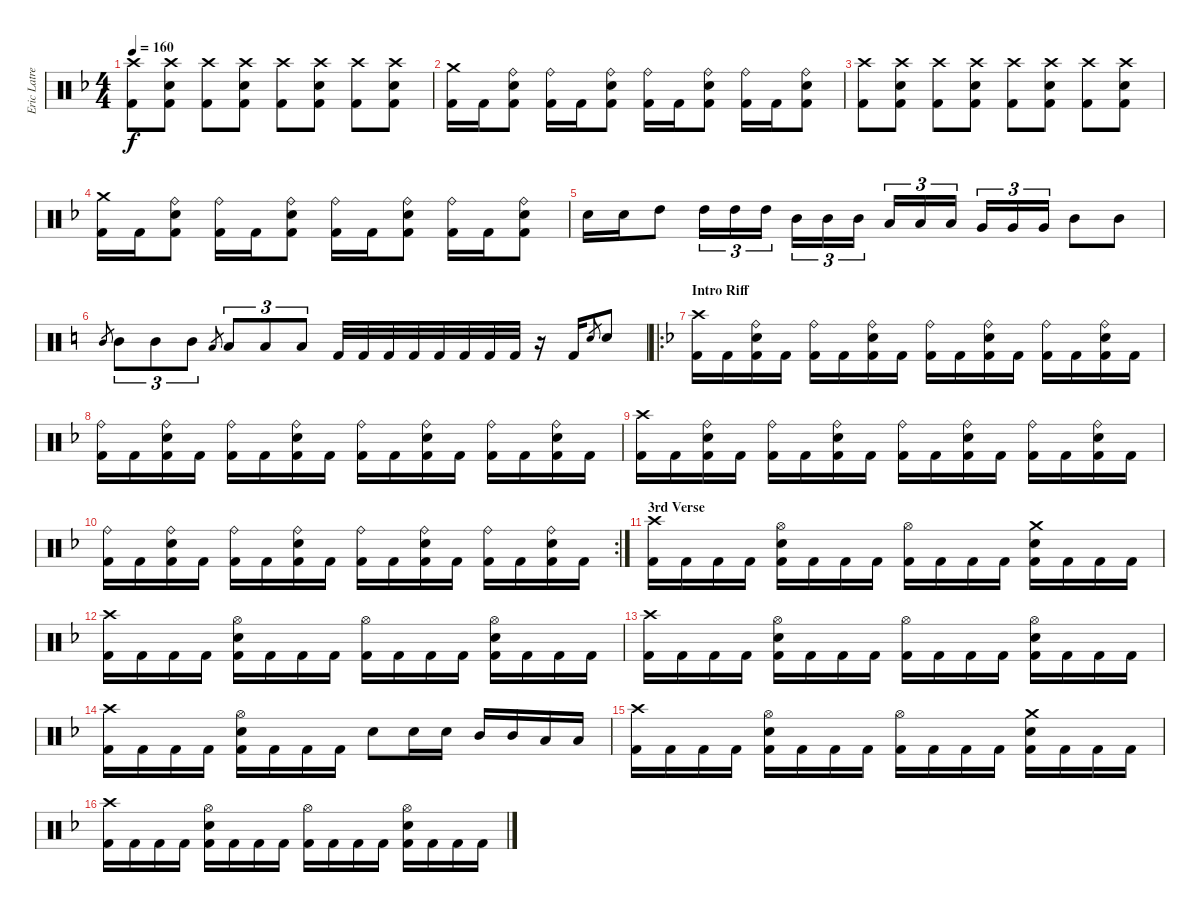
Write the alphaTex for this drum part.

\track ("Eric Latreille" "Eric Latre") {instrument percussion}
\staff {score}
\articulation defaults
\ts (4 4)
\tempo 160
\clef neutral
\ks dminor
("Crash high (hit)" "Kick (hit) 2").8{dy f} ("Crash high (hit)" "Snare (hit) 2" "Kick (hit) 2").8 ("Crash high (hit)" "Kick (hit) 2").8 ("Crash high (hit)" "Snare (hit) 2" "Kick (hit) 2").8 ("Crash high (hit)" "Kick (hit) 2").8 ("Crash high (hit)" "Snare (hit) 2" "Kick (hit) 2").8 ("Crash high (hit)" "Kick (hit) 2").8 ("Crash high (hit)" "Snare (hit) 2" "Kick (hit) 2").8 |
("Crash medium (hit)" "Kick (hit) 2").16 "Kick (hit) 2".16 ("Ride (bell)" "Snare (hit) 2" "Kick (hit) 2").8 ("Ride (bell)" "Kick (hit) 2").16 "Kick (hit) 2".16 ("Ride (bell)" "Snare (hit) 2" "Kick (hit) 2").8 ("Ride (bell)" "Kick (hit) 2").16 "Kick (hit) 2".16 ("Ride (bell)" "Snare (hit) 2" "Kick (hit) 2").8 ("Ride (bell)" "Kick (hit) 2").16 "Kick (hit) 2".16 ("Ride (bell)" "Snare (hit) 2" "Kick (hit) 2").8 |
("Crash high (hit)" "Kick (hit) 2").8 ("Crash high (hit)" "Snare (hit) 2" "Kick (hit) 2").8 ("Crash high (hit)" "Kick (hit) 2").8 ("Crash high (hit)" "Snare (hit) 2" "Kick (hit) 2").8 ("Crash high (hit)" "Kick (hit) 2").8 ("Crash high (hit)" "Snare (hit) 2" "Kick (hit) 2").8 ("Crash high (hit)" "Kick (hit) 2").8 ("Crash high (hit)" "Snare (hit) 2" "Kick (hit) 2").8 |
("Crash medium (hit)" "Kick (hit) 2").16 "Kick (hit) 2".16 ("Ride (bell)" "Snare (hit) 2" "Kick (hit) 2").8 ("Ride (bell)" "Kick (hit) 2").16 "Kick (hit) 2".16 ("Ride (bell)" "Snare (hit) 2" "Kick (hit) 2").8 ("Ride (bell)" "Kick (hit) 2").16 "Kick (hit) 2".16 ("Ride (bell)" "Snare (hit) 2" "Kick (hit) 2").8 ("Ride (bell)" "Kick (hit) 2").16 "Kick (hit) 2".16 ("Ride (bell)" "Snare (hit) 2" "Kick (hit) 2").8 |
"Snare (hit) 2".16 "Snare (hit) 2".16 "High Tom (hit)".8 "High Tom (hit)".16{tu (3 2)} "High Tom (hit)".16{tu (3 2)} "High Tom (hit)".16{tu (3 2)} "Mid Tom (hit)".16{tu (3 2)} "Mid Tom (hit)".16{tu (3 2)} "Mid Tom (hit)".16{tu (3 2)} "Low Tom (hit)".16{tu (3 2)} "Low Tom (hit)".16{tu (3 2)} "Low Tom (hit)".16{tu (3 2)} "Very Low Tom (hit)".16{tu (3 2)} "Very Low Tom (hit)".16{tu (3 2)} "Very Low Tom (hit)".16{tu (3 2)} "Mid Tom (hit)".8 "Mid Tom (hit)".8 |
\ks c "Mid Tom (hit)".8{gr} "Mid Tom (hit)".8{tu (3 2)} "Mid Tom (hit)".8{tu (3 2)} "Mid Tom (hit)".8{tu (3 2)} "Low Tom (hit)".8{gr} "Low Tom (hit)".8{tu (3 2)} "Low Tom (hit)".8{tu (3 2)} "Low Tom (hit)".8{tu (3 2)} "Kick (hit) 2".32 "Kick (hit) 2".32 "Kick (hit) 2".32 "Kick (hit) 2".32 "Kick (hit) 2".32 "Kick (hit) 2".32 "Kick (hit) 2".32 "Kick (hit) 2".32
r.16 "Kick (hit) 2".16 "Electric Snare (hit)".8{gr} "Electric Snare (hit)".8 |
\ro
\section ("" "Intro Riff")
\ks dminor
("Crash high (hit)" "Kick (hit) 2").16 "Kick (hit) 2".16 ("Ride (bell)" "Snare (hit) 2" "Kick (hit) 2").16 "Kick (hit) 2".16 ("Ride (bell)" "Kick (hit) 2").16 "Kick (hit) 2".16 ("Ride (bell)" "Snare (hit) 2" "Kick (hit) 2").16 "Kick (hit) 2".16 ("Ride (bell)" "Kick (hit) 2").16 "Kick (hit) 2".16 ("Ride (bell)" "Snare (hit) 2" "Kick (hit) 2").16 "Kick (hit) 2".16 ("Ride (bell)" "Kick (hit) 2").16 "Kick (hit) 2".16 ("Ride (bell)" "Snare (hit) 2" "Kick (hit) 2").16 "Kick (hit) 2".16 |
("Ride (bell)" "Kick (hit) 2").16 "Kick (hit) 2".16 ("Ride (bell)" "Snare (hit) 2" "Kick (hit) 2").16 "Kick (hit) 2".16 ("Ride (bell)" "Kick (hit) 2").16 "Kick (hit) 2".16 ("Ride (bell)" "Snare (hit) 2" "Kick (hit) 2").16 "Kick (hit) 2".16 ("Ride (bell)" "Kick (hit) 2").16 "Kick (hit) 2".16 ("Ride (bell)" "Snare (hit) 2" "Kick (hit) 2").16 "Kick (hit) 2".16 ("Ride (bell)" "Kick (hit) 2").16 "Kick (hit) 2".16 ("Ride (bell)" "Snare (hit) 2" "Kick (hit) 2").16 "Kick (hit) 2".16 |
("Crash high (hit)" "Kick (hit) 2").16 "Kick (hit) 2".16 ("Ride (bell)" "Snare (hit) 2" "Kick (hit) 2").16 "Kick (hit) 2".16 ("Ride (bell)" "Kick (hit) 2").16 "Kick (hit) 2".16 ("Ride (bell)" "Snare (hit) 2" "Kick (hit) 2").16 "Kick (hit) 2".16 ("Ride (bell)" "Kick (hit) 2").16 "Kick (hit) 2".16 ("Ride (bell)" "Snare (hit) 2" "Kick (hit) 2").16 "Kick (hit) 2".16 ("Ride (bell)" "Kick (hit) 2").16 "Kick (hit) 2".16 ("Ride (bell)" "Snare (hit) 2" "Kick (hit) 2").16 "Kick (hit) 2".16 |
\rc 2
("Ride (bell)" "Kick (hit) 2").16 "Kick (hit) 2".16 ("Ride (bell)" "Snare (hit) 2" "Kick (hit) 2").16 "Kick (hit) 2".16 ("Ride (bell)" "Kick (hit) 2").16 "Kick (hit) 2".16 ("Ride (bell)" "Snare (hit) 2" "Kick (hit) 2").16 "Kick (hit) 2".16 ("Ride (bell)" "Kick (hit) 2").16 "Kick (hit) 2".16 ("Ride (bell)" "Snare (hit) 2" "Kick (hit) 2").16 "Kick (hit) 2".16 ("Ride (bell)" "Kick (hit) 2").16 "Kick (hit) 2".16 ("Ride (bell)" "Snare (hit) 2" "Kick (hit) 2").16 "Kick (hit) 2".16 |
\section ("" "3rd Verse")
("Crash high (hit)" "Kick (hit) 2").16 "Kick (hit) 2".16 "Kick (hit) 2".16 "Kick (hit) 2".16 ("Hi-Hat (open)" "Snare (hit) 2" "Kick (hit) 2").16 "Kick (hit) 2".16 "Kick (hit) 2".16 "Kick (hit) 2".16 ("Hi-Hat (open)" "Kick (hit) 2").16 "Kick (hit) 2".16 "Kick (hit) 2".16 "Kick (hit) 2".16 ("Crash medium (hit)" "Snare (hit) 2" "Kick (hit) 2").16 "Kick (hit) 2".16 "Kick (hit) 2".16 "Kick (hit) 2".16 |
("Crash high (hit)" "Kick (hit) 2").16 "Kick (hit) 2".16 "Kick (hit) 2".16 "Kick (hit) 2".16 ("Hi-Hat (open)" "Snare (hit) 2" "Kick (hit) 2").16 "Kick (hit) 2".16 "Kick (hit) 2".16 "Kick (hit) 2".16 ("Hi-Hat (open)" "Kick (hit) 2").16 "Kick (hit) 2".16 "Kick (hit) 2".16 "Kick (hit) 2".16 ("Hi-Hat (open)" "Snare (hit) 2" "Kick (hit) 2").16 "Kick (hit) 2".16 "Kick (hit) 2".16 "Kick (hit) 2".16 |
("Crash high (hit)" "Kick (hit) 2").16 "Kick (hit) 2".16 "Kick (hit) 2".16 "Kick (hit) 2".16 ("Hi-Hat (open)" "Snare (hit) 2" "Kick (hit) 2").16 "Kick (hit) 2".16 "Kick (hit) 2".16 "Kick (hit) 2".16 ("Hi-Hat (open)" "Kick (hit) 2").16 "Kick (hit) 2".16 "Kick (hit) 2".16 "Kick (hit) 2".16 ("Hi-Hat (open)" "Snare (hit) 2" "Kick (hit) 2").16 "Kick (hit) 2".16 "Kick (hit) 2".16 "Kick (hit) 2".16 |
("Crash high (hit)" "Kick (hit) 2").16 "Kick (hit) 2".16 "Kick (hit) 2".16 "Kick (hit) 2".16 ("Hi-Hat (open)" "Snare (hit) 2" "Kick (hit) 2").16 "Kick (hit) 2".16 "Kick (hit) 2".16 "Kick (hit) 2".16 "Snare (hit) 2".8 "Snare (hit) 2".16 "Snare (hit) 2".16 "Mid Tom (hit)".16 "Mid Tom (hit)".16 "Low Tom (hit)".16 "Low Tom (hit)".16 |
("Crash high (hit)" "Kick (hit) 2").16 "Kick (hit) 2".16 "Kick (hit) 2".16 "Kick (hit) 2".16 ("Hi-Hat (open)" "Snare (hit) 2" "Kick (hit) 2").16 "Kick (hit) 2".16 "Kick (hit) 2".16 "Kick (hit) 2".16 ("Hi-Hat (open)" "Kick (hit) 2").16 "Kick (hit) 2".16 "Kick (hit) 2".16 "Kick (hit) 2".16 ("Crash medium (hit)" "Snare (hit) 2" "Kick (hit) 2").16 "Kick (hit) 2".16 "Kick (hit) 2".16 "Kick (hit) 2".16 |
("Crash high (hit)" "Kick (hit) 2").16 "Kick (hit) 2".16 "Kick (hit) 2".16 "Kick (hit) 2".16 ("Hi-Hat (open)" "Snare (hit) 2" "Kick (hit) 2").16 "Kick (hit) 2".16 "Kick (hit) 2".16 "Kick (hit) 2".16 ("Hi-Hat (open)" "Kick (hit) 2").16 "Kick (hit) 2".16 "Kick (hit) 2".16 "Kick (hit) 2".16 ("Hi-Hat (open)" "Snare (hit) 2" "Kick (hit) 2").16 "Kick (hit) 2".16 "Kick (hit) 2".16 "Kick (hit) 2".16
